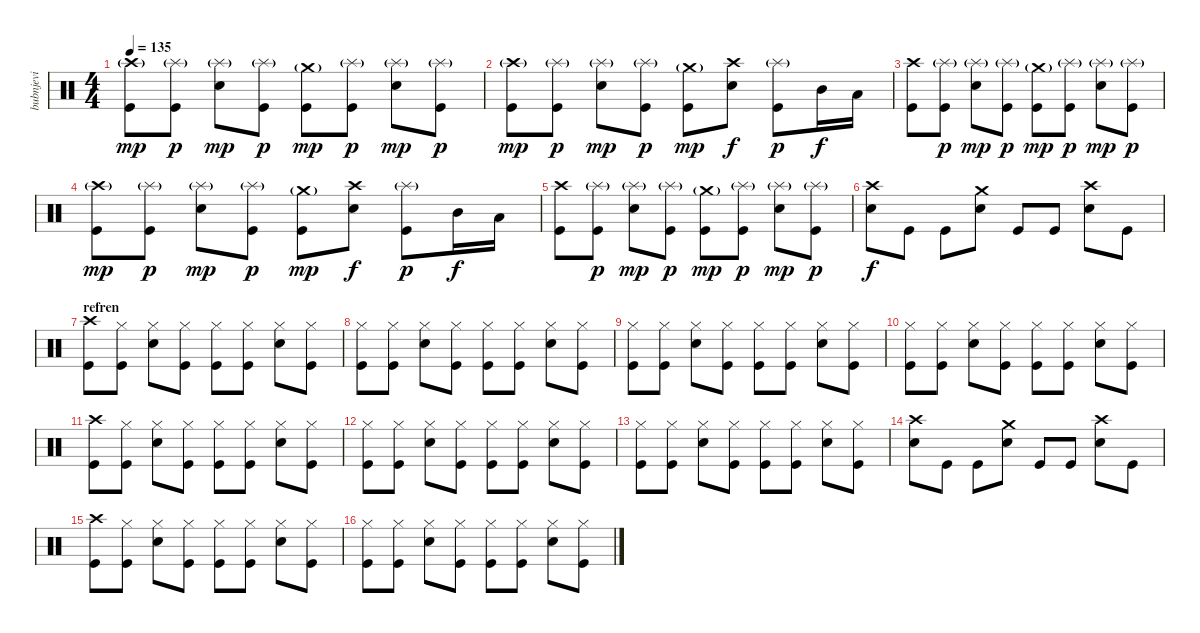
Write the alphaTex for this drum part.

\track ("bubnjevi" "bubnjevi") {instrument percussion}
\staff {score}
\articulation defaults
\ts (4 4)
\tempo 135
\clef neutral
\ks c
("Crash high (hit)"{g} "Kick (hit)").8{dy mp} ("Splash (hit)"{g} "Kick (hit)").8{dy p} ("Splash (hit)"{g} "Electric Snare (hit)").8{dy mp} ("Splash (hit)"{g} "Kick (hit)").8{dy p} ("Crash medium (hit)"{g} "Kick (hit)").8{dy mp} ("Splash (hit)"{g} "Kick (hit)").8{dy p} ("Splash (hit)"{g} "Electric Snare (hit)").8{dy mp} ("Splash (hit)"{g} "Kick (hit)").8{dy p} |
("Crash high (hit)"{g} "Kick (hit)").8{dy mp} ("Splash (hit)"{g} "Kick (hit)").8{dy p} ("Splash (hit)"{g} "Electric Snare (hit)").8{dy mp} ("Splash (hit)"{g} "Kick (hit)").8{dy p} ("Crash medium (hit)"{g} "Kick (hit)").8{dy mp} ("Crash high (hit)" "Electric Snare (hit)").8{dy f} ("Splash (hit)"{g} "Kick (hit)").8{dy p} "Mid Tom (hit)".16{dy f} "Low Tom (hit)".16 |
("Crash high (hit)" "Kick (hit)").8 ("Splash (hit)"{g} "Kick (hit)").8{dy p} ("Splash (hit)"{g} "Electric Snare (hit)").8{dy mp} ("Splash (hit)"{g} "Kick (hit)").8{dy p} ("Crash medium (hit)"{g} "Kick (hit)").8{dy mp} ("Splash (hit)"{g} "Kick (hit)").8{dy p} ("Splash (hit)"{g} "Electric Snare (hit)").8{dy mp} ("Splash (hit)"{g} "Kick (hit)").8{dy p} |
("Crash high (hit)"{g} "Kick (hit)").8{dy mp} ("Splash (hit)"{g} "Kick (hit)").8{dy p} ("Splash (hit)"{g} "Electric Snare (hit)").8{dy mp} ("Splash (hit)"{g} "Kick (hit)").8{dy p} ("Crash medium (hit)"{g} "Kick (hit)").8{dy mp} ("Crash high (hit)" "Electric Snare (hit)").8{dy f} ("Splash (hit)"{g} "Kick (hit)").8{dy p} "Mid Tom (hit)".16{dy f} "Low Tom (hit)".16 |
("Crash high (hit)" "Kick (hit)").8 ("Splash (hit)"{g} "Kick (hit)").8{dy p} ("Splash (hit)"{g} "Electric Snare (hit)").8{dy mp} ("Splash (hit)"{g} "Kick (hit)").8{dy p} ("Crash medium (hit)"{g} "Kick (hit)").8{dy mp} ("Splash (hit)"{g} "Kick (hit)").8{dy p} ("Splash (hit)"{g} "Electric Snare (hit)").8{dy mp} ("Splash (hit)"{g} "Kick (hit)").8{dy p} |
("Crash high (hit)" "Electric Snare (hit)").8{dy f} "Kick (hit)".8 "Kick (hit)".8 ("Crash medium (hit)" "Electric Snare (hit)").8 "Kick (hit)".8 "Kick (hit)".8 ("Crash high (hit)" "Electric Snare (hit)").8 "Kick (hit)".8 |
\section ("" "refren")
("Crash high (hit)" "Kick (hit)").8 ("Hi-Hat (closed)" "Kick (hit)").8 ("Hi-Hat (closed)" "Electric Snare (hit)").8 ("Hi-Hat (closed)" "Kick (hit)").8 ("Hi-Hat (closed)" "Kick (hit)").8 ("Hi-Hat (closed)" "Kick (hit)").8 ("Hi-Hat (closed)" "Electric Snare (hit)").8 ("Hi-Hat (closed)" "Kick (hit)").8 |
("Hi-Hat (closed)" "Kick (hit)").8 ("Hi-Hat (closed)" "Kick (hit)").8 ("Hi-Hat (closed)" "Electric Snare (hit)").8 ("Hi-Hat (closed)" "Kick (hit)").8 ("Hi-Hat (closed)" "Kick (hit)").8 ("Hi-Hat (closed)" "Kick (hit)").8 ("Hi-Hat (closed)" "Electric Snare (hit)").8 ("Hi-Hat (closed)" "Kick (hit)").8 |
("Hi-Hat (closed)" "Kick (hit)").8 ("Hi-Hat (closed)" "Kick (hit)").8 ("Hi-Hat (closed)" "Electric Snare (hit)").8 ("Hi-Hat (closed)" "Kick (hit)").8 ("Hi-Hat (closed)" "Kick (hit)").8 ("Hi-Hat (closed)" "Kick (hit)").8 ("Hi-Hat (closed)" "Electric Snare (hit)").8 ("Hi-Hat (closed)" "Kick (hit)").8 |
("Hi-Hat (closed)" "Kick (hit)").8 ("Hi-Hat (closed)" "Kick (hit)").8 ("Hi-Hat (closed)" "Electric Snare (hit)").8 ("Hi-Hat (closed)" "Kick (hit)").8 ("Hi-Hat (closed)" "Kick (hit)").8 ("Hi-Hat (closed)" "Kick (hit)").8 ("Hi-Hat (closed)" "Electric Snare (hit)").8 ("Hi-Hat (closed)" "Kick (hit)").8 |
("Crash high (hit)" "Kick (hit)").8 ("Hi-Hat (closed)" "Kick (hit)").8 ("Hi-Hat (closed)" "Electric Snare (hit)").8 ("Hi-Hat (closed)" "Kick (hit)").8 ("Hi-Hat (closed)" "Kick (hit)").8 ("Hi-Hat (closed)" "Kick (hit)").8 ("Hi-Hat (closed)" "Electric Snare (hit)").8 ("Hi-Hat (closed)" "Kick (hit)").8 |
("Hi-Hat (closed)" "Kick (hit)").8 ("Hi-Hat (closed)" "Kick (hit)").8 ("Hi-Hat (closed)" "Electric Snare (hit)").8 ("Hi-Hat (closed)" "Kick (hit)").8 ("Hi-Hat (closed)" "Kick (hit)").8 ("Hi-Hat (closed)" "Kick (hit)").8 ("Hi-Hat (closed)" "Electric Snare (hit)").8 ("Hi-Hat (closed)" "Kick (hit)").8 |
("Hi-Hat (closed)" "Kick (hit)").8 ("Hi-Hat (closed)" "Kick (hit)").8 ("Hi-Hat (closed)" "Electric Snare (hit)").8 ("Hi-Hat (closed)" "Kick (hit)").8 ("Hi-Hat (closed)" "Kick (hit)").8 ("Hi-Hat (closed)" "Kick (hit)").8 ("Hi-Hat (closed)" "Electric Snare (hit)").8 ("Hi-Hat (closed)" "Kick (hit)").8 |
("Crash high (hit)" "Electric Snare (hit)").8 "Kick (hit)".8 "Kick (hit)".8 ("Crash medium (hit)" "Electric Snare (hit)").8 "Kick (hit)".8 "Kick (hit)".8 ("Crash high (hit)" "Electric Snare (hit)").8 "Kick (hit)".8 |
("Crash high (hit)" "Kick (hit)").8 ("Hi-Hat (closed)" "Kick (hit)").8 ("Hi-Hat (closed)" "Electric Snare (hit)").8 ("Hi-Hat (closed)" "Kick (hit)").8 ("Hi-Hat (closed)" "Kick (hit)").8 ("Hi-Hat (closed)" "Kick (hit)").8 ("Hi-Hat (closed)" "Electric Snare (hit)").8 ("Hi-Hat (closed)" "Kick (hit)").8 |
("Hi-Hat (closed)" "Kick (hit)").8 ("Hi-Hat (closed)" "Kick (hit)").8 ("Hi-Hat (closed)" "Electric Snare (hit)").8 ("Hi-Hat (closed)" "Kick (hit)").8 ("Hi-Hat (closed)" "Kick (hit)").8 ("Hi-Hat (closed)" "Kick (hit)").8 ("Hi-Hat (closed)" "Electric Snare (hit)").8 ("Hi-Hat (closed)" "Kick (hit)").8
